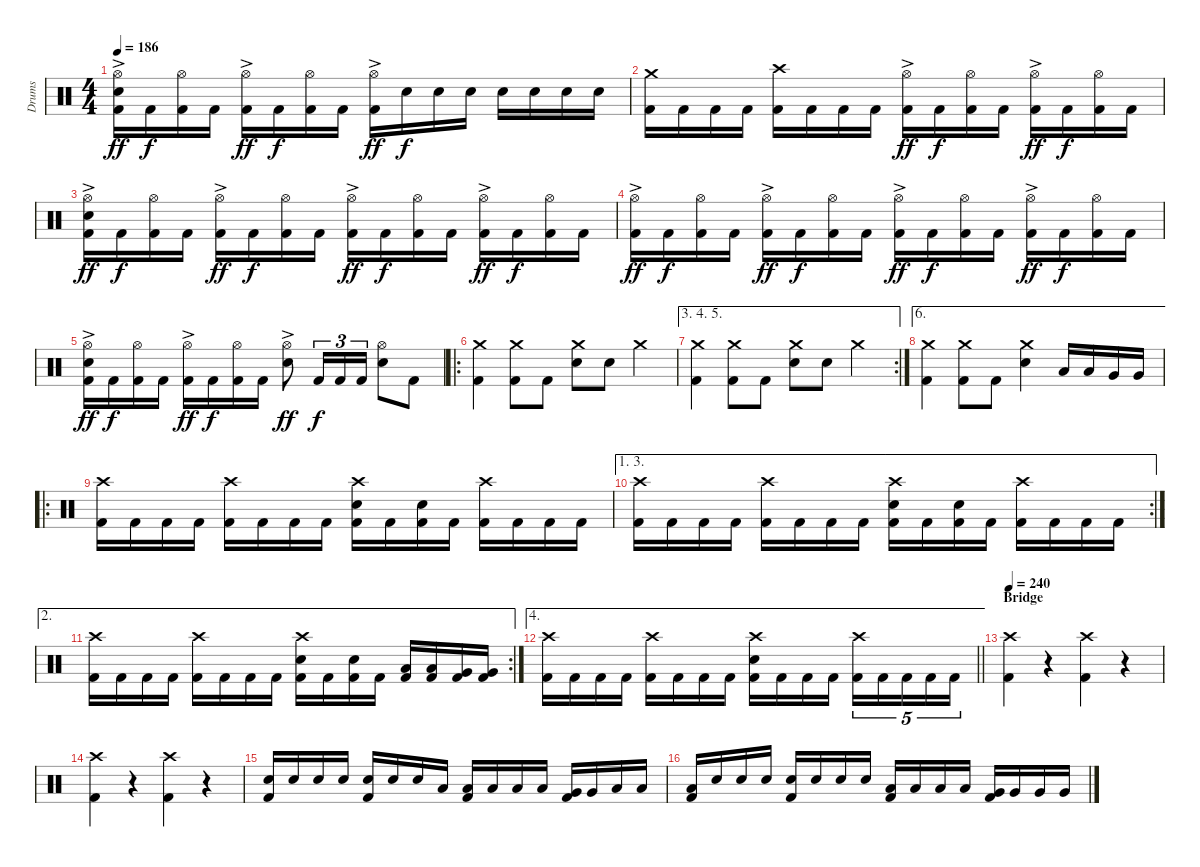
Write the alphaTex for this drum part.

\track ("Drums" "Drums") {instrument percussion}
\staff {score}
\articulation defaults
\ts (4 4)
\tempo 186
\clef neutral
\ks c
("Hi-Hat (open)"{ac} "Electric Snare (hit)" "Kick (hit) 2").16{dy ff} "Kick (hit) 2".16{dy f} ("Hi-Hat (open)" "Kick (hit) 2").16 "Kick (hit) 2".16 ("Hi-Hat (open)"{ac} "Kick (hit) 2").16{dy ff} "Kick (hit) 2".16{dy f} ("Hi-Hat (open)" "Kick (hit) 2").16 "Kick (hit) 2".16 ("Hi-Hat (open)"{ac} "Kick (hit) 2").16{dy ff} "Electric Snare (hit)".16{dy f} "Electric Snare (hit)".16 "Electric Snare (hit)".16 "Electric Snare (hit)".16 "Electric Snare (hit)".16 "Electric Snare (hit)".16 "Electric Snare (hit)".16 |
("Crash medium (hit)" "Kick (hit) 2").16 "Kick (hit) 2".16 "Kick (hit) 2".16 "Kick (hit) 2".16 ("Crash high (hit)" "Kick (hit) 2").16 "Kick (hit) 2".16 "Kick (hit) 2".16 "Kick (hit) 2".16 ("Hi-Hat (open)"{ac} "Kick (hit) 2").16{dy ff} "Kick (hit) 2".16{dy f} ("Hi-Hat (open)" "Kick (hit) 2").16 "Kick (hit) 2".16 ("Hi-Hat (open)"{ac} "Kick (hit) 2").16{dy ff} "Kick (hit) 2".16{dy f} ("Hi-Hat (open)" "Kick (hit) 2").16 "Kick (hit) 2".16 |
("Hi-Hat (open)"{ac} "Electric Snare (hit)" "Kick (hit) 2").16{dy ff} "Kick (hit) 2".16{dy f} ("Hi-Hat (open)" "Kick (hit) 2").16 "Kick (hit) 2".16 ("Hi-Hat (open)"{ac} "Kick (hit) 2").16{dy ff} "Kick (hit) 2".16{dy f} ("Hi-Hat (open)" "Kick (hit) 2").16 "Kick (hit) 2".16 ("Hi-Hat (open)"{ac} "Kick (hit) 2").16{dy ff} "Kick (hit) 2".16{dy f} ("Hi-Hat (open)" "Kick (hit) 2").16 "Kick (hit) 2".16 ("Hi-Hat (open)"{ac} "Kick (hit) 2").16{dy ff} "Kick (hit) 2".16{dy f} ("Hi-Hat (open)" "Kick (hit) 2").16 "Kick (hit) 2".16 |
("Hi-Hat (open)"{ac} "Kick (hit) 2").16{dy ff} "Kick (hit) 2".16{dy f} ("Hi-Hat (open)" "Kick (hit) 2").16 "Kick (hit) 2".16 ("Hi-Hat (open)"{ac} "Kick (hit) 2").16{dy ff} "Kick (hit) 2".16{dy f} ("Hi-Hat (open)" "Kick (hit) 2").16 "Kick (hit) 2".16 ("Hi-Hat (open)"{ac} "Kick (hit) 2").16{dy ff} "Kick (hit) 2".16{dy f} ("Hi-Hat (open)" "Kick (hit) 2").16 "Kick (hit) 2".16 ("Hi-Hat (open)"{ac} "Kick (hit) 2").16{dy ff} "Kick (hit) 2".16{dy f} ("Hi-Hat (open)" "Kick (hit) 2").16 "Kick (hit) 2".16 |
("Hi-Hat (open)"{ac} "Electric Snare (hit)" "Kick (hit) 2").16{dy ff} "Kick (hit) 2".16{dy f} ("Hi-Hat (open)" "Kick (hit) 2").16 "Kick (hit) 2".16 ("Hi-Hat (open)"{ac} "Kick (hit) 2").16{dy ff} "Kick (hit) 2".16{dy f} ("Hi-Hat (open)" "Kick (hit) 2").16 "Kick (hit) 2".16 ("Hi-Hat (open)"{ac} "Electric Snare (hit)").8{dy ff} "Kick (hit) 2".16{tu (3 2) dy f} "Kick (hit) 2".16{tu (3 2)} "Kick (hit) 2".16{tu (3 2)} ("Hi-Hat (open)" "Electric Snare (hit)").8 "Kick (hit) 2".8 |
\ro
("Crash medium (hit)" "Kick (hit) 2").4 ("Crash medium (hit)" "Kick (hit) 2").8 "Kick (hit) 2".8 ("Crash medium (hit)" "Electric Snare (hit)").8 "Electric Snare (hit)".8 "Crash medium (hit)".4 |
\ae (3 4 5)
\rc 2
("Crash medium (hit)" "Kick (hit) 2").4 ("Crash medium (hit)" "Kick (hit) 2").8 "Kick (hit) 2".8 ("Crash medium (hit)" "Electric Snare (hit)").8 "Electric Snare (hit)".8 "Crash medium (hit)".4 |
\ae 6
("Crash medium (hit)" "Kick (hit) 2").4 ("Crash medium (hit)" "Kick (hit) 2").8 "Kick (hit) 2".8 ("Crash medium (hit)" "Electric Snare (hit)").4 "Low Tom (hit)".16 "Low Tom (hit)".16 "Very Low Tom (hit)".16 "Very Low Tom (hit)".16 |
\ro
("Crash high (hit)" "Kick (hit) 2").16 "Kick (hit) 2".16 "Kick (hit) 2".16 "Kick (hit) 2".16 ("Crash high (hit)" "Kick (hit) 2").16 "Kick (hit) 2".16 "Kick (hit) 2".16 "Kick (hit) 2".16 ("Crash high (hit)" "Electric Snare (hit)" "Kick (hit) 2").16 "Kick (hit) 2".16 ("Electric Snare (hit)" "Kick (hit) 2").16 "Kick (hit) 2".16 ("Crash high (hit)" "Kick (hit) 2").16 "Kick (hit) 2".16 "Kick (hit) 2".16 "Kick (hit) 2".16 |
\ae (1 3)
\rc 2
("Crash high (hit)" "Kick (hit) 2").16 "Kick (hit) 2".16 "Kick (hit) 2".16 "Kick (hit) 2".16 ("Crash high (hit)" "Kick (hit) 2").16 "Kick (hit) 2".16 "Kick (hit) 2".16 "Kick (hit) 2".16 ("Crash high (hit)" "Electric Snare (hit)" "Kick (hit) 2").16 "Kick (hit) 2".16 ("Electric Snare (hit)" "Kick (hit) 2").16 "Kick (hit) 2".16 ("Crash high (hit)" "Kick (hit) 2").16 "Kick (hit) 2".16 "Kick (hit) 2".16 "Kick (hit) 2".16 |
\ae 2
\rc 2
("Crash high (hit)" "Kick (hit) 2").16 "Kick (hit) 2".16 "Kick (hit) 2".16 "Kick (hit) 2".16 ("Crash high (hit)" "Kick (hit) 2").16 "Kick (hit) 2".16 "Kick (hit) 2".16 "Kick (hit) 2".16 ("Crash high (hit)" "Electric Snare (hit)" "Kick (hit) 2").16 "Kick (hit) 2".16 ("Electric Snare (hit)" "Kick (hit) 2").16 "Kick (hit) 2".16 ("Low Tom (hit)" "Kick (hit) 2").16 ("Low Tom (hit)" "Kick (hit) 2").16 ("Very Low Tom (hit)" "Kick (hit) 2").16 ("Very Low Tom (hit)" "Kick (hit) 2").16 |
\ae 4
\barLineRight lightlight
("Crash high (hit)" "Kick (hit) 2").16 "Kick (hit) 2".16 "Kick (hit) 2".16 "Kick (hit) 2".16 ("Crash high (hit)" "Kick (hit) 2").16 "Kick (hit) 2".16 "Kick (hit) 2".16 "Kick (hit) 2".16 ("Crash high (hit)" "Electric Snare (hit)" "Kick (hit) 2").16 "Kick (hit) 2".16 "Kick (hit) 2".16 "Kick (hit) 2".16 ("Crash high (hit)" "Kick (hit) 2").16{tu (5 4)} "Kick (hit) 2".16{tu (5 4)} "Kick (hit) 2".16{tu (5 4)} "Kick (hit) 2".16{tu (5 4)} "Kick (hit) 2".16{tu (5 4)} |
\section ("" "Bridge")
\tempo 240
("Crash high (hit)" "Kick (hit) 2").4 r.4 ("Crash high (hit)" "Kick (hit) 2").4 r.4 |
("Crash high (hit)" "Kick (hit) 2").4 r.4 ("Crash high (hit)" "Kick (hit) 2").4 r.4 |
("Electric Snare (hit)" "Kick (hit) 2").16 "Electric Snare (hit)".16 "Electric Snare (hit)".16 "Electric Snare (hit)".16 ("Electric Snare (hit)" "Kick (hit) 2").16 "Electric Snare (hit)".16 "Electric Snare (hit)".16 "Low Tom (hit)".16 ("Low Tom (hit)" "Kick (hit) 2").16 "Low Tom (hit)".16 "Low Tom (hit)".16 "Low Tom (hit)".16 ("Very Low Tom (hit)" "Kick (hit) 2").16 "Very Low Tom (hit)".16 "Low Floor Tom (hit)".16 "Low Floor Tom (hit)".16 |
("Low Floor Tom (hit)" "Kick (hit) 2").16 "Electric Snare (hit)".16 "Electric Snare (hit)".16 "Electric Snare (hit)".16 ("Electric Snare (hit)" "Kick (hit) 2").16 "Electric Snare (hit)".16 "Electric Snare (hit)".16 "Electric Snare (hit)".16 ("Low Tom (hit)" "Kick (hit) 2").16 "Low Tom (hit)".16 "Low Tom (hit)".16 "Low Tom (hit)".16 ("Very Low Tom (hit)" "Kick (hit) 2").16 "Very Low Tom (hit)".16 "Very Low Tom (hit)".16 "Very Low Tom (hit)".16
